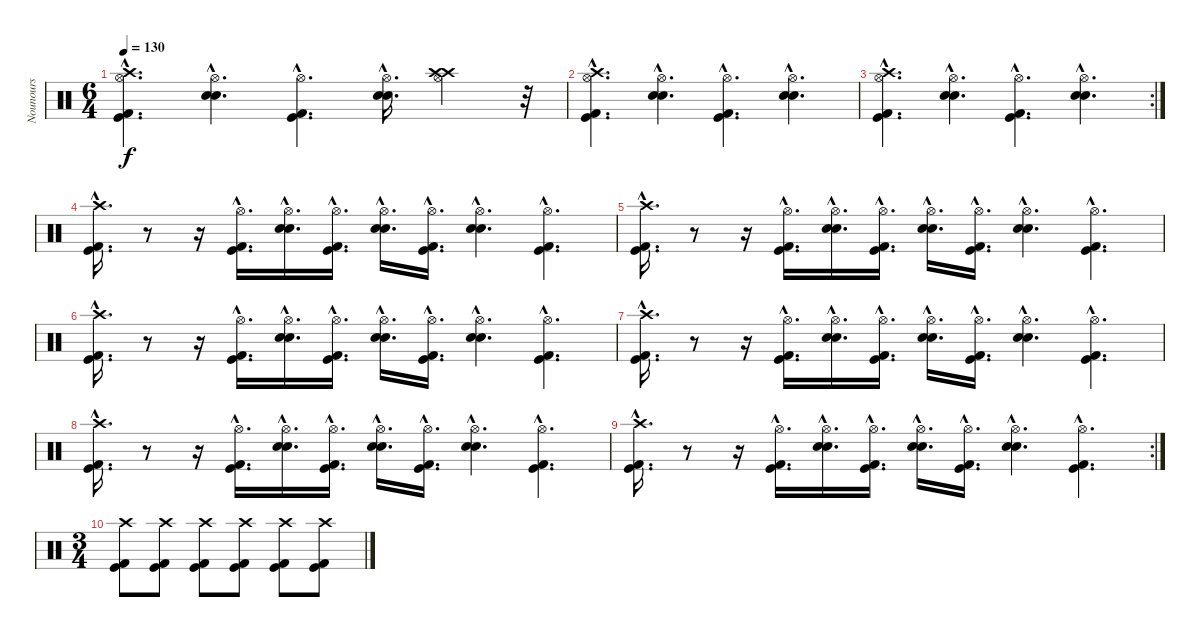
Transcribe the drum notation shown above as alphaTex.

\track ("Nounours" "Nounours") {instrument percussion}
\staff {score}
\articulation defaults
\ts (6 4)
\tempo 130
\clef neutral
\ks c
("Hi-Hat (open)"{hac} "Crash high (hit)"{hac} "Kick (hit) 2"{hac} "Kick (hit)"{hac}).4{d dy f} ("Hi-Hat (open)"{hac} "Snare (hit) 2"{hac} "Electric Snare (hit)"{hac}).4{d} ("Hi-Hat (open)"{hac} "Kick (hit)"{hac} "Kick (hit) 2"{hac}).4{d} ("Hi-Hat (open)"{hac} "Snare (hit) 2"{hac} "Electric Snare (hit)"{hac}).16{d} ("Hi-Hat (open)" "Crash high (hit)" "Crash high (hit)").4 r.32 |
("Hi-Hat (open)"{hac} "Crash high (hit)"{hac} "Kick (hit) 2"{hac} "Kick (hit)"{hac}).4{d} ("Hi-Hat (open)"{hac} "Snare (hit) 2"{hac} "Electric Snare (hit)"{hac}).4{d} ("Hi-Hat (open)"{hac} "Kick (hit)"{hac} "Kick (hit) 2"{hac}).4{d} ("Hi-Hat (open)"{hac} "Snare (hit) 2"{hac} "Electric Snare (hit)"{hac}).4{d} |
\rc 2
("Hi-Hat (open)"{hac} "Crash high (hit)"{hac} "Kick (hit) 2"{hac} "Kick (hit)"{hac}).4{d} ("Hi-Hat (open)"{hac} "Snare (hit) 2"{hac} "Electric Snare (hit)"{hac}).4{d} ("Hi-Hat (open)"{hac} "Kick (hit)"{hac} "Kick (hit) 2"{hac}).4{d} ("Hi-Hat (open)"{hac} "Snare (hit) 2"{hac} "Electric Snare (hit)"{hac}).4{d} |
("Crash high (hit)"{hac} "Kick (hit)"{hac} "Kick (hit) 2"{hac}).16{d} r.8 r.16 ("Hi-Hat (open)"{hac} "Kick (hit) 2"{hac} "Kick (hit)"{hac}).16{d} ("Hi-Hat (open)"{hac} "Snare (hit) 2"{hac} "Electric Snare (hit)"{hac}).16{d} ("Hi-Hat (open)"{hac} "Kick (hit)"{hac} "Kick (hit) 2"{hac}).16{d} ("Hi-Hat (open)"{hac} "Snare (hit) 2"{hac} "Electric Snare (hit)"{hac}).16{d} ("Hi-Hat (open)"{hac} "Kick (hit)"{hac} "Kick (hit) 2"{hac}).16{d} ("Hi-Hat (open)"{hac} "Snare (hit) 2"{hac} "Electric Snare (hit)"{hac}).4{d} ("Hi-Hat (open)"{hac} "Kick (hit)"{hac} "Kick (hit) 2"{hac}).4{d} |
("Crash high (hit)"{hac} "Kick (hit)"{hac} "Kick (hit) 2"{hac}).16{d} r.8 r.16 ("Hi-Hat (open)"{hac} "Kick (hit) 2"{hac} "Kick (hit)"{hac}).16{d} ("Hi-Hat (open)"{hac} "Snare (hit) 2"{hac} "Electric Snare (hit)"{hac}).16{d} ("Hi-Hat (open)"{hac} "Kick (hit)"{hac} "Kick (hit) 2"{hac}).16{d} ("Hi-Hat (open)"{hac} "Snare (hit) 2"{hac} "Electric Snare (hit)"{hac}).16{d} ("Hi-Hat (open)"{hac} "Kick (hit)"{hac} "Kick (hit) 2"{hac}).16{d} ("Hi-Hat (open)"{hac} "Snare (hit) 2"{hac} "Electric Snare (hit)"{hac}).4{d} ("Hi-Hat (open)"{hac} "Kick (hit)"{hac} "Kick (hit) 2"{hac}).4{d} |
("Crash high (hit)"{hac} "Kick (hit)"{hac} "Kick (hit) 2"{hac}).16{d} r.8 r.16 ("Hi-Hat (open)"{hac} "Kick (hit) 2"{hac} "Kick (hit)"{hac}).16{d} ("Hi-Hat (open)"{hac} "Snare (hit) 2"{hac} "Electric Snare (hit)"{hac}).16{d} ("Hi-Hat (open)"{hac} "Kick (hit)"{hac} "Kick (hit) 2"{hac}).16{d} ("Hi-Hat (open)"{hac} "Snare (hit) 2"{hac} "Electric Snare (hit)"{hac}).16{d} ("Hi-Hat (open)"{hac} "Kick (hit)"{hac} "Kick (hit) 2"{hac}).16{d} ("Hi-Hat (open)"{hac} "Snare (hit) 2"{hac} "Electric Snare (hit)"{hac}).4{d} ("Hi-Hat (open)"{hac} "Kick (hit)"{hac} "Kick (hit) 2"{hac}).4{d} |
("Crash high (hit)"{hac} "Kick (hit)"{hac} "Kick (hit) 2"{hac}).16{d} r.8 r.16 ("Hi-Hat (open)"{hac} "Kick (hit) 2"{hac} "Kick (hit)"{hac}).16{d} ("Hi-Hat (open)"{hac} "Snare (hit) 2"{hac} "Electric Snare (hit)"{hac}).16{d} ("Hi-Hat (open)"{hac} "Kick (hit)"{hac} "Kick (hit) 2"{hac}).16{d} ("Hi-Hat (open)"{hac} "Snare (hit) 2"{hac} "Electric Snare (hit)"{hac}).16{d} ("Hi-Hat (open)"{hac} "Kick (hit)"{hac} "Kick (hit) 2"{hac}).16{d} ("Hi-Hat (open)"{hac} "Snare (hit) 2"{hac} "Electric Snare (hit)"{hac}).4{d} ("Hi-Hat (open)"{hac} "Kick (hit)"{hac} "Kick (hit) 2"{hac}).4{d} |
("Crash high (hit)"{hac} "Kick (hit)"{hac} "Kick (hit) 2"{hac}).16{d} r.8 r.16 ("Hi-Hat (open)"{hac} "Kick (hit) 2"{hac} "Kick (hit)"{hac}).16{d} ("Hi-Hat (open)"{hac} "Snare (hit) 2"{hac} "Electric Snare (hit)"{hac}).16{d} ("Hi-Hat (open)"{hac} "Kick (hit)"{hac} "Kick (hit) 2"{hac}).16{d} ("Hi-Hat (open)"{hac} "Snare (hit) 2"{hac} "Electric Snare (hit)"{hac}).16{d} ("Hi-Hat (open)"{hac} "Kick (hit)"{hac} "Kick (hit) 2"{hac}).16{d} ("Hi-Hat (open)"{hac} "Snare (hit) 2"{hac} "Electric Snare (hit)"{hac}).4{d} ("Hi-Hat (open)"{hac} "Kick (hit)"{hac} "Kick (hit) 2"{hac}).4{d} |
\rc 2
("Crash high (hit)"{hac} "Kick (hit)"{hac} "Kick (hit) 2"{hac}).16{d} r.8 r.16 ("Hi-Hat (open)"{hac} "Kick (hit) 2"{hac} "Kick (hit)"{hac}).16{d} ("Hi-Hat (open)"{hac} "Snare (hit) 2"{hac} "Electric Snare (hit)"{hac}).16{d} ("Hi-Hat (open)"{hac} "Kick (hit)"{hac} "Kick (hit) 2"{hac}).16{d} ("Hi-Hat (open)"{hac} "Snare (hit) 2"{hac} "Electric Snare (hit)"{hac}).16{d} ("Hi-Hat (open)"{hac} "Kick (hit)"{hac} "Kick (hit) 2"{hac}).16{d} ("Hi-Hat (open)"{hac} "Snare (hit) 2"{hac} "Electric Snare (hit)"{hac}).4{d} ("Hi-Hat (open)"{hac} "Kick (hit)"{hac} "Kick (hit) 2"{hac}).4{d} |
\ts (3 4)
("Crash high (hit)" "Kick (hit) 2" "Kick (hit)").8 ("Crash high (hit)" "Kick (hit)" "Kick (hit) 2").8 ("Crash high (hit)" "Kick (hit)" "Kick (hit) 2").8 ("Crash high (hit)" "Kick (hit)" "Kick (hit) 2").8 ("Crash high (hit)" "Kick (hit) 2" "Kick (hit)").8 ("Crash high (hit)" "Kick (hit) 2" "Kick (hit)").8
